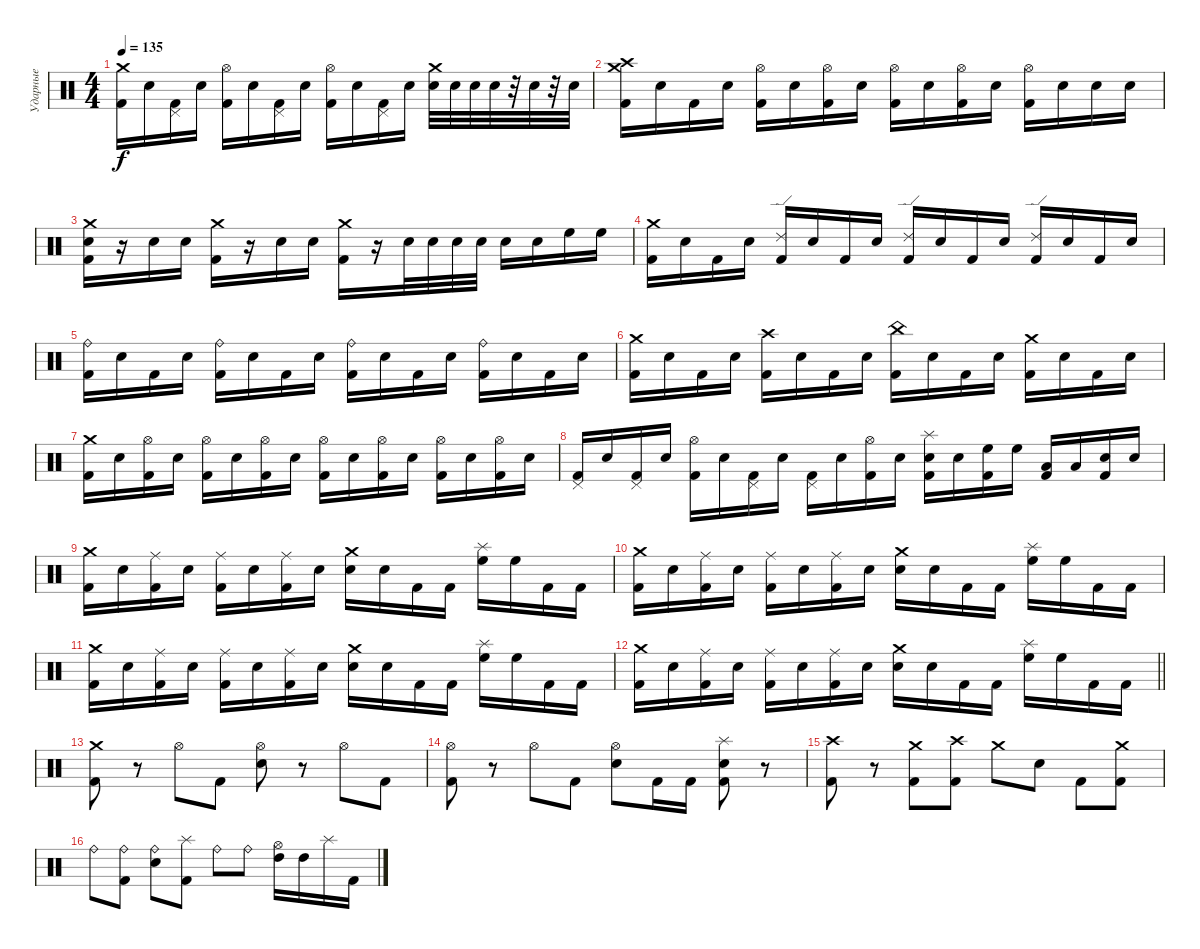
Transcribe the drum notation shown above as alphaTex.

\track ("Ударные" "Ударные") {instrument percussion}
\staff {score}
\articulation defaults
\ts (4 4)
\tempo 135
\clef neutral
\ks c
("Crash medium (hit)" "Kick (hit) 2").16{dy f} "Electric Snare (hit)".16 ("Pedal Hi-Hat (hit)" "Kick (hit) 2").16 "Electric Snare (hit)".16 ("Hi-Hat (open)" "Kick (hit) 2").16 "Electric Snare (hit)".16 ("Pedal Hi-Hat (hit)" "Kick (hit) 2").16 "Electric Snare (hit)".16 ("Hi-Hat (open)" "Kick (hit) 2").16 "Electric Snare (hit)".16 ("Pedal Hi-Hat (hit)" "Kick (hit) 2").16 "Electric Snare (hit)".16 ("Crash medium (hit)" "Electric Snare (hit)").32 "Electric Snare (hit)".32 "Electric Snare (hit)".32 "Electric Snare (hit)".32 r.32 "Electric Snare (hit)".32 r.32 "Electric Snare (hit)".32 |
("Crash medium (hit)" "Crash high (hit)" "Kick (hit) 2").16 "Electric Snare (hit)".16 "Kick (hit) 2".16 "Electric Snare (hit)".16 ("Hi-Hat (open)" "Kick (hit) 2").16 "Electric Snare (hit)".16 ("Hi-Hat (open)" "Kick (hit) 2").16 "Electric Snare (hit)".16 ("Hi-Hat (open)" "Kick (hit) 2").16 "Electric Snare (hit)".16 ("Hi-Hat (open)" "Kick (hit) 2").16 "Electric Snare (hit)".16 ("Hi-Hat (open)" "Kick (hit) 2").16 "Electric Snare (hit)".16 "Electric Snare (hit)".16 "Electric Snare (hit)".16 |
("Crash medium (hit)" "Electric Snare (hit)" "Kick (hit) 2").16 r.16 "Electric Snare (hit)".16 "Electric Snare (hit)".16 ("Crash medium (hit)" "Kick (hit) 2").16 r.16 "Electric Snare (hit)".16 "Electric Snare (hit)".16 ("Crash medium (hit)" "Kick (hit) 2").16 r.16 "Electric Snare (hit)".32 "Electric Snare (hit)".32 "Electric Snare (hit)".32 "Electric Snare (hit)".32 "Electric Snare (hit)".16 "Electric Snare (hit)".16 "High Floor Tom (hit)".16 "High Floor Tom (hit)".16 |
("Crash medium (hit)" "Kick (hit) 2").16 "Electric Snare (hit)".16 "Kick (hit) 2".16 "Electric Snare (hit)".16 ("Ride (edge) 2" "Kick (hit) 2").16 "Electric Snare (hit)".16 "Kick (hit) 2".16 "Electric Snare (hit)".16 ("Ride (edge) 2" "Kick (hit) 2").16 "Electric Snare (hit)".16 "Kick (hit) 2".16 "Electric Snare (hit)".16 ("Ride (edge) 2" "Kick (hit) 2").16 "Electric Snare (hit)".16 "Kick (hit) 2".16 "Electric Snare (hit)".16 |
("Ride (bell)" "Kick (hit) 2").16 "Electric Snare (hit)".16 "Kick (hit) 2".16 "Electric Snare (hit)".16 ("Ride (bell)" "Kick (hit) 2").16 "Electric Snare (hit)".16 "Kick (hit) 2".16 "Electric Snare (hit)".16 ("Ride (bell)" "Kick (hit) 2").16 "Electric Snare (hit)".16 "Kick (hit) 2".16 "Electric Snare (hit)".16 ("Ride (bell)" "Kick (hit) 2").16 "Electric Snare (hit)".16 "Kick (hit) 2".16 "Electric Snare (hit)".16 |
("Crash medium (hit)" "Kick (hit) 2").16 "Electric Snare (hit)".16 "Kick (hit) 2".16 "Electric Snare (hit)".16 ("Crash high (hit)" "Kick (hit) 2").16 "Electric Snare (hit)".16 "Kick (hit) 2".16 "Electric Snare (hit)".16 ("China (hit)" "Kick (hit) 2").16 "Electric Snare (hit)".16 "Kick (hit) 2".16 "Electric Snare (hit)".16 ("Crash medium (hit)" "Kick (hit) 2").16 "Electric Snare (hit)".16 "Kick (hit) 2".16 "Electric Snare (hit)".16 |
("Crash medium (hit)" "Kick (hit) 2").16 "Electric Snare (hit)".16 ("Hi-Hat (open)" "Kick (hit) 2").16 "Electric Snare (hit)".16 ("Hi-Hat (open)" "Kick (hit) 2").16 "Electric Snare (hit)".16 ("Hi-Hat (open)" "Kick (hit) 2").16 "Electric Snare (hit)".16 ("Hi-Hat (open)" "Kick (hit) 2").16 "Electric Snare (hit)".16 ("Hi-Hat (open)" "Kick (hit) 2").16 "Electric Snare (hit)".16 ("Hi-Hat (open)" "Kick (hit) 2").16 "Electric Snare (hit)".16 ("Hi-Hat (open)" "Kick (hit) 2").16 "Electric Snare (hit)".16 |
("Pedal Hi-Hat (hit)" "Kick (hit) 2").16 "Electric Snare (hit)".16 ("Pedal Hi-Hat (hit)" "Kick (hit) 2").16 "Electric Snare (hit)".16 ("Hi-Hat (open)" "Kick (hit) 2").16 "Electric Snare (hit)".16 ("Pedal Hi-Hat (hit)" "Kick (hit) 2").16 "Electric Snare (hit)".16 ("Pedal Hi-Hat (hit)" "Kick (hit) 2").16 "Electric Snare (hit)".16 ("Hi-Hat (open)" "Kick (hit) 2").16 "Electric Snare (hit)".16 ("Splash (hit)" "Electric Snare (hit)" "Kick (hit) 2").16 "Electric Snare (hit)".16 ("High Floor Tom (hit)" "Kick (hit) 2").16 "High Floor Tom (hit)".16 ("Low Tom (hit)" "Kick (hit) 2").16 "Low Tom (hit)".16 ("Electric Snare (hit)" "Kick (hit) 2").16 "Electric Snare (hit)".16 |
("Crash medium (hit)" "Kick (hit) 2").16 "Electric Snare (hit)".16 ("Ride (middle)" "Kick (hit) 2").16 "Electric Snare (hit)".16 ("Ride (middle)" "Kick (hit) 2").16 "Electric Snare (hit)".16 ("Ride (middle)" "Kick (hit) 2").16 "Electric Snare (hit)".16 ("Crash medium (hit)" "Electric Snare (hit)").16 "Electric Snare (hit)".16 "Kick (hit) 2".16 "Kick (hit) 2".16 ("Splash (hit)" "High Floor Tom (hit)").16 "High Floor Tom (hit)".16 "Kick (hit) 2".16 "Kick (hit) 2".16 |
("Crash medium (hit)" "Kick (hit) 2").16 "Electric Snare (hit)".16 ("Ride (middle)" "Kick (hit) 2").16 "Electric Snare (hit)".16 ("Ride (middle)" "Kick (hit) 2").16 "Electric Snare (hit)".16 ("Ride (middle)" "Kick (hit) 2").16 "Electric Snare (hit)".16 ("Crash medium (hit)" "Electric Snare (hit)").16 "Electric Snare (hit)".16 "Kick (hit) 2".16 "Kick (hit) 2".16 ("Splash (hit)" "High Floor Tom (hit)").16 "High Floor Tom (hit)".16 "Kick (hit) 2".16 "Kick (hit) 2".16 |
("Crash medium (hit)" "Kick (hit) 2").16 "Electric Snare (hit)".16 ("Ride (middle)" "Kick (hit) 2").16 "Electric Snare (hit)".16 ("Ride (middle)" "Kick (hit) 2").16 "Electric Snare (hit)".16 ("Ride (middle)" "Kick (hit) 2").16 "Electric Snare (hit)".16 ("Crash medium (hit)" "Electric Snare (hit)").16 "Electric Snare (hit)".16 "Kick (hit) 2".16 "Kick (hit) 2".16 ("Splash (hit)" "High Floor Tom (hit)").16 "High Floor Tom (hit)".16 "Kick (hit) 2".16 "Kick (hit) 2".16 |
\barLineRight lightlight
("Crash medium (hit)" "Kick (hit) 2").16 "Electric Snare (hit)".16 ("Ride (middle)" "Kick (hit) 2").16 "Electric Snare (hit)".16 ("Ride (middle)" "Kick (hit) 2").16 "Electric Snare (hit)".16 ("Ride (middle)" "Kick (hit) 2").16 "Electric Snare (hit)".16 ("Crash medium (hit)" "Electric Snare (hit)").16 "Electric Snare (hit)".16 "Kick (hit) 2".16 "Kick (hit) 2".16 ("Splash (hit)" "High Floor Tom (hit)").16 "High Floor Tom (hit)".16 "Kick (hit) 2".16 "Kick (hit) 2".16 |
("Crash medium (hit)" "Kick (hit) 2").8 r.8 "Hi-Hat (open)".8 "Kick (hit) 2".8 ("Hi-Hat (open)" "Electric Snare (hit)").8 r.8 "Hi-Hat (open)".8 "Kick (hit) 2".8 |
("Hi-Hat (open)" "Kick (hit) 2").8 r.8 "Hi-Hat (open)".8 "Kick (hit) 2".8 ("Hi-Hat (open)" "Electric Snare (hit)").8 "Kick (hit) 2".16 "Kick (hit) 2".16 ("Splash (hit)" "Electric Snare (hit)" "Kick (hit) 2").8 r.8 |
("Crash high (hit)" "Kick (hit) 2").8 r.8 ("Crash medium (hit)" "Kick (hit) 2").8 ("Crash high (hit)" "Kick (hit) 2").8 "Crash medium (hit)".8 "Electric Snare (hit)".8 "Kick (hit) 2".8 ("Crash medium (hit)" "Kick (hit) 2").8 |
"Ride (bell)".8 ("Ride (bell)" "Kick (hit) 2").8 ("Ride (bell)" "Electric Snare (hit)").8 ("Splash (hit)" "Kick (hit) 2").8 "Ride (bell)".8 "Ride (bell)".8 ("Hi-Hat (open)" "High Tom (hit)").16 "High Tom (hit)".16 "Splash (hit)".16 "Kick (hit) 2".16
